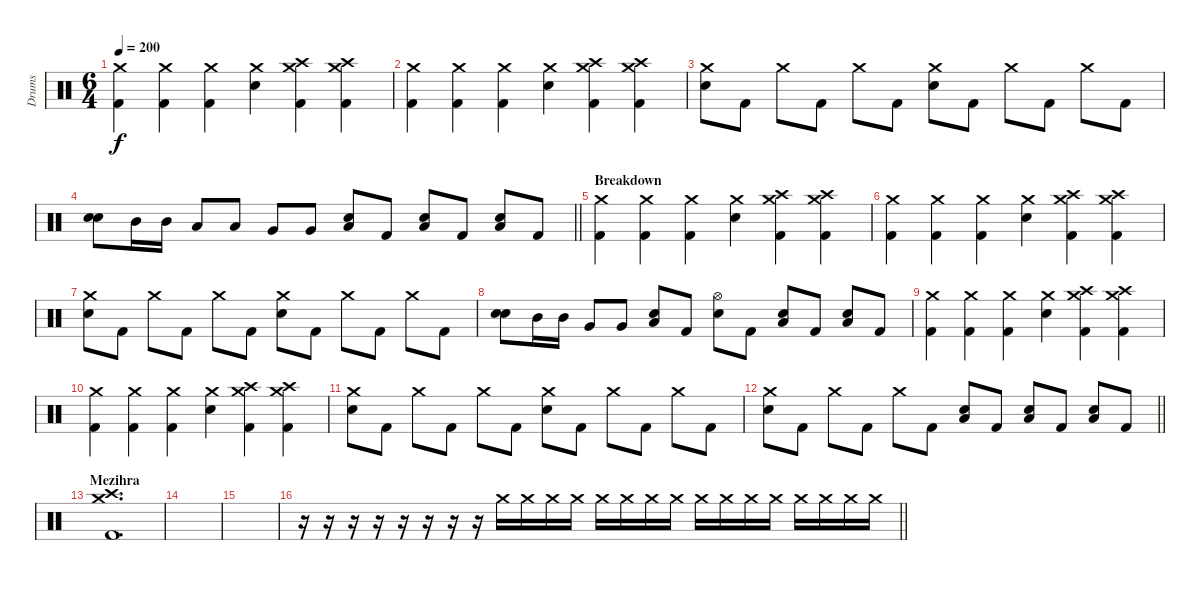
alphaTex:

\track ("Drums" "Drums") {instrument percussion}
\staff {score}
\articulation defaults
\ts (6 4)
\tempo 200
\clef neutral
\ks c
("Crash medium (hit)" "Kick (hit) 2").4{dy f} ("Crash medium (hit)" "Kick (hit) 2").4 ("Crash medium (hit)" "Kick (hit) 2").4 ("Crash medium (hit)" "Electric Snare (hit)").4 ("Crash medium (hit)" "Crash high (hit)" "Kick (hit) 2").4 ("Crash medium (hit)" "Crash high (hit)" "Kick (hit) 2").4 |
("Crash medium (hit)" "Kick (hit) 2").4 ("Crash medium (hit)" "Kick (hit) 2").4 ("Crash medium (hit)" "Kick (hit) 2").4 ("Crash medium (hit)" "Electric Snare (hit)").4 ("Crash medium (hit)" "Crash high (hit)" "Kick (hit) 2").4 ("Crash medium (hit)" "Crash high (hit)" "Kick (hit) 2").4 |
("Crash medium (hit)" "Electric Snare (hit)").8 "Kick (hit) 2".8 "Crash medium (hit)".8 "Kick (hit) 2".8 "Crash medium (hit)".8 "Kick (hit) 2".8 ("Crash medium (hit)" "Electric Snare (hit)").8 "Kick (hit) 2".8 "Crash medium (hit)".8 "Kick (hit) 2".8 "Crash medium (hit)".8 "Kick (hit) 2".8 |
\barLineRight lightlight
("Electric Snare (hit)" "Electric Snare (hit)").8 "Mid Tom (hit)".16 "Mid Tom (hit)".16 "Low Tom (hit)".8 "Low Tom (hit)".8 "Very Low Tom (hit)".8 "Very Low Tom (hit)".8 ("Low Floor Tom (hit)" "Electric Snare (hit)").8 "Kick (hit) 2".8 ("Low Floor Tom (hit)" "Electric Snare (hit)").8 "Kick (hit) 2".8 ("Low Floor Tom (hit)" "Electric Snare (hit)").8 "Kick (hit) 2".8 |
\section ("" "Breakdown")
("Crash medium (hit)" "Kick (hit) 2").4 ("Crash medium (hit)" "Kick (hit) 2").4 ("Crash medium (hit)" "Kick (hit) 2").4 ("Crash medium (hit)" "Electric Snare (hit)").4 ("Crash medium (hit)" "Crash high (hit)" "Kick (hit) 2").4 ("Crash medium (hit)" "Crash high (hit)" "Kick (hit) 2").4 |
("Crash medium (hit)" "Kick (hit) 2").4 ("Crash medium (hit)" "Kick (hit) 2").4 ("Crash medium (hit)" "Kick (hit) 2").4 ("Crash medium (hit)" "Electric Snare (hit)").4 ("Crash medium (hit)" "Crash high (hit)" "Kick (hit) 2").4 ("Crash medium (hit)" "Crash high (hit)" "Kick (hit) 2").4 |
("Crash medium (hit)" "Electric Snare (hit)").8 "Kick (hit) 2".8 "Crash medium (hit)".8 "Kick (hit) 2".8 "Crash medium (hit)".8 "Kick (hit) 2".8 ("Crash medium (hit)" "Electric Snare (hit)").8 "Kick (hit) 2".8 "Crash medium (hit)".8 "Kick (hit) 2".8 "Crash medium (hit)".8 "Kick (hit) 2".8 |
("Electric Snare (hit)" "Electric Snare (hit)").8 "Mid Tom (hit)".16 "Mid Tom (hit)".16 "Very Low Tom (hit)".8 "Very Low Tom (hit)".8 ("Low Floor Tom (hit)" "Electric Snare (hit)").8 "Kick (hit) 2".8 ("Hi-Hat (open)" "Electric Snare (hit)").8 "Kick (hit) 2".8 ("Low Floor Tom (hit)" "Electric Snare (hit)").8 "Kick (hit) 2".8 ("Low Floor Tom (hit)" "Electric Snare (hit)").8 "Kick (hit) 2".8 |
("Crash medium (hit)" "Kick (hit) 2").4 ("Crash medium (hit)" "Kick (hit) 2").4 ("Crash medium (hit)" "Kick (hit) 2").4 ("Crash medium (hit)" "Electric Snare (hit)").4 ("Crash medium (hit)" "Crash high (hit)" "Kick (hit) 2").4 ("Crash medium (hit)" "Crash high (hit)" "Kick (hit) 2").4 |
("Crash medium (hit)" "Kick (hit) 2").4 ("Crash medium (hit)" "Kick (hit) 2").4 ("Crash medium (hit)" "Kick (hit) 2").4 ("Crash medium (hit)" "Electric Snare (hit)").4 ("Crash medium (hit)" "Crash high (hit)" "Kick (hit) 2").4 ("Crash medium (hit)" "Crash high (hit)" "Kick (hit) 2").4 |
("Crash medium (hit)" "Electric Snare (hit)").8 "Kick (hit) 2".8 "Crash medium (hit)".8 "Kick (hit) 2".8 "Crash medium (hit)".8 "Kick (hit) 2".8 ("Crash medium (hit)" "Electric Snare (hit)").8 "Kick (hit) 2".8 "Crash medium (hit)".8 "Kick (hit) 2".8 "Crash medium (hit)".8 "Kick (hit) 2".8 |
\barLineRight lightlight
("Crash medium (hit)" "Electric Snare (hit)").8 "Kick (hit) 2".8 "Crash medium (hit)".8 "Kick (hit) 2".8 "Crash medium (hit)".8 "Kick (hit) 2".8 ("Low Floor Tom (hit)" "Electric Snare (hit)").8 "Kick (hit) 2".8 ("Low Floor Tom (hit)" "Electric Snare (hit)").8 "Kick (hit) 2".8 ("Low Floor Tom (hit)" "Electric Snare (hit)").8 "Kick (hit) 2".8 |
\section ("" "Mezihra")
("Crash high (hit)" "Crash medium (hit)" "Kick (hit) 2").1{d} |
|
|
\barLineRight lightlight
r.16 r.16 r.16 r.16 r.16 r.16 r.16 r.16 "Crash medium (hit)".16{volume 0} "Crash medium (hit)".16{volume 13} "Crash medium (hit)".16 "Crash medium (hit)".16 "Crash medium (hit)".16 "Crash medium (hit)".16 "Crash medium (hit)".16 "Crash medium (hit)".16 "Crash medium (hit)".16 "Crash medium (hit)".16 "Crash medium (hit)".16 "Crash medium (hit)".16 "Crash medium (hit)".16 "Crash medium (hit)".16 "Crash medium (hit)".16 "Crash medium (hit)".16
